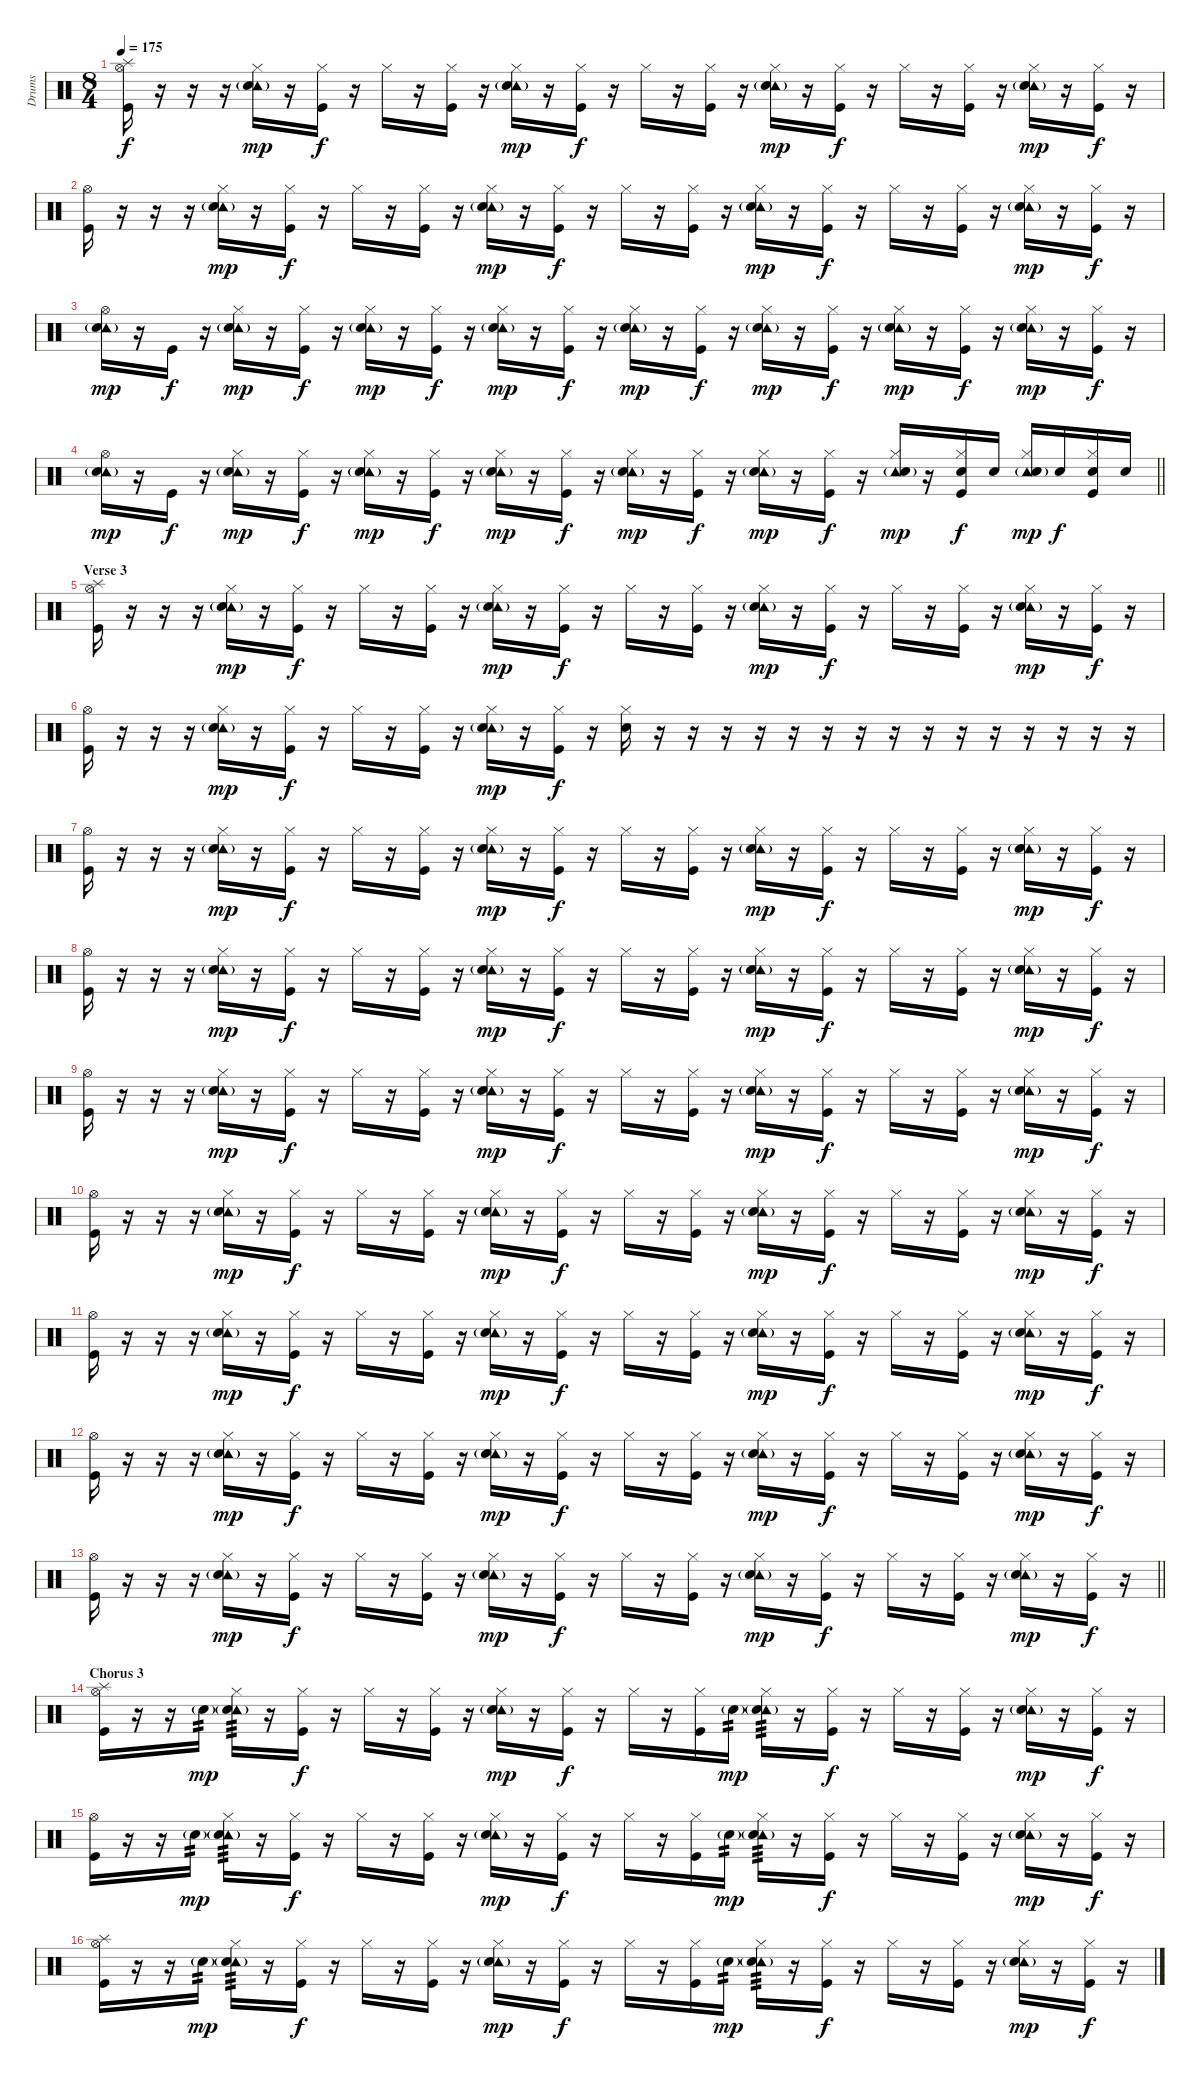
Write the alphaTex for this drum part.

\track ("Drums" "Drums") {instrument percussion}
\staff {score}
\articulation defaults
\ts (8 4)
\tempo 175
\clef neutral
\ks c
("Splash (hit)" "Hi-Hat (open)" "Kick (hit)").16{dy f} r.16 r.16 r.16 ("Tambourine (hit)"{g} "Hi-Hat (closed)" "Electric Snare (hit)").16{dy mp} r.16 ("Hi-Hat (closed)" "Kick (hit)").16{dy f} r.16 "Hi-Hat (closed)".16 r.16 ("Hi-Hat (closed)" "Kick (hit)").16 r.16 ("Tambourine (hit)"{g} "Hi-Hat (closed)" "Electric Snare (hit)").16{dy mp} r.16 ("Hi-Hat (closed)" "Kick (hit)").16{dy f} r.16 "Hi-Hat (closed)".16 r.16 ("Hi-Hat (closed)" "Kick (hit)").16 r.16 ("Tambourine (hit)"{g} "Hi-Hat (closed)" "Electric Snare (hit)").16{dy mp} r.16 ("Hi-Hat (closed)" "Kick (hit)").16{dy f} r.16 "Hi-Hat (closed)".16 r.16 ("Hi-Hat (closed)" "Kick (hit)").16 r.16 ("Tambourine (hit)"{g} "Hi-Hat (closed)" "Electric Snare (hit)").16{dy mp} r.16 ("Hi-Hat (closed)" "Kick (hit)").16{dy f} r.16 |
("Hi-Hat (open)" "Kick (hit)").16 r.16 r.16 r.16 ("Tambourine (hit)"{g} "Hi-Hat (closed)" "Electric Snare (hit)").16{dy mp} r.16 ("Hi-Hat (closed)" "Kick (hit)").16{dy f} r.16 "Hi-Hat (closed)".16 r.16 ("Hi-Hat (closed)" "Kick (hit)").16 r.16 ("Tambourine (hit)"{g} "Hi-Hat (closed)" "Electric Snare (hit)").16{dy mp} r.16 ("Hi-Hat (closed)" "Kick (hit)").16{dy f} r.16 "Hi-Hat (closed)".16 r.16 ("Hi-Hat (closed)" "Kick (hit)").16 r.16 ("Tambourine (hit)"{g} "Hi-Hat (closed)" "Electric Snare (hit)").16{dy mp} r.16 ("Hi-Hat (closed)" "Kick (hit)").16{dy f} r.16 "Hi-Hat (closed)".16 r.16 ("Hi-Hat (closed)" "Kick (hit)").16 r.16 ("Tambourine (hit)"{g} "Hi-Hat (closed)" "Electric Snare (hit)").16{dy mp} r.16 ("Hi-Hat (closed)" "Kick (hit)").16{dy f} r.16 |
("Tambourine (hit)"{g} "Hi-Hat (open)" "Electric Snare (hit)").16{dy mp} r.16 "Kick (hit)".16{dy f} r.16 ("Tambourine (hit)"{g} "Hi-Hat (closed)" "Electric Snare (hit)").16{dy mp} r.16 ("Hi-Hat (closed)" "Kick (hit)").16{dy f} r.16 ("Tambourine (hit)"{g} "Hi-Hat (closed)" "Electric Snare (hit)").16{dy mp} r.16 ("Hi-Hat (closed)" "Kick (hit)").16{dy f} r.16 ("Tambourine (hit)"{g} "Hi-Hat (closed)" "Electric Snare (hit)").16{dy mp} r.16 ("Hi-Hat (closed)" "Kick (hit)").16{dy f} r.16 ("Tambourine (hit)"{g} "Hi-Hat (closed)" "Electric Snare (hit)").16{dy mp} r.16 ("Hi-Hat (closed)" "Kick (hit)").16{dy f} r.16 ("Tambourine (hit)"{g} "Hi-Hat (closed)" "Electric Snare (hit)").16{dy mp} r.16 ("Hi-Hat (closed)" "Kick (hit)").16{dy f} r.16 ("Tambourine (hit)"{g} "Hi-Hat (closed)" "Electric Snare (hit)").16{dy mp} r.16 ("Hi-Hat (closed)" "Kick (hit)").16{dy f} r.16 ("Tambourine (hit)"{g} "Hi-Hat (closed)" "Electric Snare (hit)").16{dy mp} r.16 ("Hi-Hat (closed)" "Kick (hit)").16{dy f} r.16 |
\barLineRight lightlight
("Tambourine (hit)"{g} "Hi-Hat (open)" "Electric Snare (hit)").16{dy mp} r.16 "Kick (hit)".16{dy f} r.16 ("Tambourine (hit)"{g} "Hi-Hat (closed)" "Electric Snare (hit)").16{dy mp} r.16 ("Hi-Hat (closed)" "Kick (hit)").16{dy f} r.16 ("Tambourine (hit)"{g} "Hi-Hat (closed)" "Electric Snare (hit)").16{dy mp} r.16 ("Hi-Hat (closed)" "Kick (hit)").16{dy f} r.16 ("Tambourine (hit)"{g} "Hi-Hat (closed)" "Electric Snare (hit)").16{dy mp} r.16 ("Hi-Hat (closed)" "Kick (hit)").16{dy f} r.16 ("Tambourine (hit)"{g} "Hi-Hat (closed)" "Electric Snare (hit)").16{dy mp} r.16 ("Hi-Hat (closed)" "Kick (hit)").16{dy f} r.16 ("Tambourine (hit)"{g} "Hi-Hat (closed)" "Electric Snare (hit)").16{dy mp} r.16 ("Hi-Hat (closed)" "Kick (hit)").16{dy f} r.16 ("Tambourine (hit)"{g} "Hi-Hat (closed)" "Electric Snare (hit)").16{dy mp} r.16 ("Hi-Hat (closed)" "Electric Snare (hit)" "Kick (hit)").16{dy f} "Electric Snare (hit)".16 ("Tambourine (hit)"{g} "Hi-Hat (closed)" "Electric Snare (hit)").16{dy mp} "Electric Snare (hit)".16{dy f} ("Hi-Hat (closed)" "Electric Snare (hit)" "Kick (hit)").16 "Electric Snare (hit)".16 |
\section ("" "Verse 3")
("Splash (hit)" "Hi-Hat (open)" "Kick (hit)").16 r.16 r.16 r.16 ("Tambourine (hit)"{g} "Hi-Hat (closed)" "Electric Snare (hit)").16{dy mp} r.16 ("Hi-Hat (closed)" "Kick (hit)").16{dy f} r.16 "Hi-Hat (closed)".16 r.16 ("Hi-Hat (closed)" "Kick (hit)").16 r.16 ("Tambourine (hit)"{g} "Hi-Hat (closed)" "Electric Snare (hit)").16{dy mp} r.16 ("Hi-Hat (closed)" "Kick (hit)").16{dy f} r.16 "Hi-Hat (closed)".16 r.16 ("Hi-Hat (closed)" "Kick (hit)").16 r.16 ("Tambourine (hit)"{g} "Hi-Hat (closed)" "Electric Snare (hit)").16{dy mp} r.16 ("Hi-Hat (closed)" "Kick (hit)").16{dy f} r.16 "Hi-Hat (closed)".16 r.16 ("Hi-Hat (closed)" "Kick (hit)").16 r.16 ("Tambourine (hit)"{g} "Hi-Hat (closed)" "Electric Snare (hit)").16{dy mp} r.16 ("Hi-Hat (closed)" "Kick (hit)").16{dy f} r.16 |
("Hi-Hat (open)" "Kick (hit)").16 r.16 r.16 r.16 ("Tambourine (hit)"{g} "Hi-Hat (closed)" "Electric Snare (hit)").16{dy mp} r.16 ("Hi-Hat (closed)" "Kick (hit)").16{dy f} r.16 "Hi-Hat (closed)".16 r.16 ("Hi-Hat (closed)" "Kick (hit)").16 r.16 ("Tambourine (hit)"{g} "Hi-Hat (closed)" "Electric Snare (hit)").16{dy mp} r.16 ("Hi-Hat (closed)" "Kick (hit)").16{dy f} r.16 ("Hi-Hat (closed)" "Electric Snare (hit)").16 r.16 r.16 r.16 r.16 r.16 r.16 r.16 r.16 r.16 r.16 r.16 r.16 r.16 r.16 r.16 |
("Hi-Hat (open)" "Kick (hit)").16 r.16 r.16 r.16 ("Tambourine (hit)"{g} "Hi-Hat (closed)" "Electric Snare (hit)").16{dy mp} r.16 ("Hi-Hat (closed)" "Kick (hit)").16{dy f} r.16 "Hi-Hat (closed)".16 r.16 ("Hi-Hat (closed)" "Kick (hit)").16 r.16 ("Tambourine (hit)"{g} "Hi-Hat (closed)" "Electric Snare (hit)").16{dy mp} r.16 ("Hi-Hat (closed)" "Kick (hit)").16{dy f} r.16 "Hi-Hat (closed)".16 r.16 ("Hi-Hat (closed)" "Kick (hit)").16 r.16 ("Tambourine (hit)"{g} "Hi-Hat (closed)" "Electric Snare (hit)").16{dy mp} r.16 ("Hi-Hat (closed)" "Kick (hit)").16{dy f} r.16 "Hi-Hat (closed)".16 r.16 ("Hi-Hat (closed)" "Kick (hit)").16 r.16 ("Tambourine (hit)"{g} "Hi-Hat (closed)" "Electric Snare (hit)").16{dy mp} r.16 ("Hi-Hat (closed)" "Kick (hit)").16{dy f} r.16 |
("Hi-Hat (open)" "Kick (hit)").16 r.16 r.16 r.16 ("Tambourine (hit)"{g} "Hi-Hat (closed)" "Electric Snare (hit)").16{dy mp} r.16 ("Hi-Hat (closed)" "Kick (hit)").16{dy f} r.16 "Hi-Hat (closed)".16 r.16 ("Hi-Hat (closed)" "Kick (hit)").16 r.16 ("Tambourine (hit)"{g} "Hi-Hat (closed)" "Electric Snare (hit)").16{dy mp} r.16 ("Hi-Hat (closed)" "Kick (hit)").16{dy f} r.16 "Hi-Hat (closed)".16 r.16 ("Hi-Hat (closed)" "Kick (hit)").16 r.16 ("Tambourine (hit)"{g} "Hi-Hat (closed)" "Electric Snare (hit)").16{dy mp} r.16 ("Hi-Hat (closed)" "Kick (hit)").16{dy f} r.16 "Hi-Hat (closed)".16 r.16 ("Hi-Hat (closed)" "Kick (hit)").16 r.16 ("Tambourine (hit)"{g} "Hi-Hat (closed)" "Electric Snare (hit)").16{dy mp} r.16 ("Hi-Hat (closed)" "Kick (hit)").16{dy f} r.16 |
("Hi-Hat (open)" "Kick (hit)").16 r.16 r.16 r.16 ("Tambourine (hit)"{g} "Hi-Hat (closed)" "Electric Snare (hit)").16{dy mp} r.16 ("Hi-Hat (closed)" "Kick (hit)").16{dy f} r.16 "Hi-Hat (closed)".16 r.16 ("Hi-Hat (closed)" "Kick (hit)").16 r.16 ("Tambourine (hit)"{g} "Hi-Hat (closed)" "Electric Snare (hit)").16{dy mp} r.16 ("Hi-Hat (closed)" "Kick (hit)").16{dy f} r.16 "Hi-Hat (closed)".16 r.16 ("Hi-Hat (closed)" "Kick (hit)").16 r.16 ("Tambourine (hit)"{g} "Hi-Hat (closed)" "Electric Snare (hit)").16{dy mp} r.16 ("Hi-Hat (closed)" "Kick (hit)").16{dy f} r.16 "Hi-Hat (closed)".16 r.16 ("Hi-Hat (closed)" "Kick (hit)").16 r.16 ("Tambourine (hit)"{g} "Hi-Hat (closed)" "Electric Snare (hit)").16{dy mp} r.16 ("Hi-Hat (closed)" "Kick (hit)").16{dy f} r.16 |
("Hi-Hat (open)" "Kick (hit)").16 r.16 r.16 r.16 ("Tambourine (hit)"{g} "Hi-Hat (closed)" "Electric Snare (hit)").16{dy mp} r.16 ("Hi-Hat (closed)" "Kick (hit)").16{dy f} r.16 "Hi-Hat (closed)".16 r.16 ("Hi-Hat (closed)" "Kick (hit)").16 r.16 ("Tambourine (hit)"{g} "Hi-Hat (closed)" "Electric Snare (hit)").16{dy mp} r.16 ("Hi-Hat (closed)" "Kick (hit)").16{dy f} r.16 "Hi-Hat (closed)".16 r.16 ("Hi-Hat (closed)" "Kick (hit)").16 r.16 ("Tambourine (hit)"{g} "Hi-Hat (closed)" "Electric Snare (hit)").16{dy mp} r.16 ("Hi-Hat (closed)" "Kick (hit)").16{dy f} r.16 "Hi-Hat (closed)".16 r.16 ("Hi-Hat (closed)" "Kick (hit)").16 r.16 ("Tambourine (hit)"{g} "Hi-Hat (closed)" "Electric Snare (hit)").16{dy mp} r.16 ("Hi-Hat (closed)" "Kick (hit)").16{dy f} r.16 |
("Hi-Hat (open)" "Kick (hit)").16 r.16 r.16 r.16 ("Tambourine (hit)"{g} "Hi-Hat (closed)" "Electric Snare (hit)").16{dy mp} r.16 ("Hi-Hat (closed)" "Kick (hit)").16{dy f} r.16 "Hi-Hat (closed)".16 r.16 ("Hi-Hat (closed)" "Kick (hit)").16 r.16 ("Tambourine (hit)"{g} "Hi-Hat (closed)" "Electric Snare (hit)").16{dy mp} r.16 ("Hi-Hat (closed)" "Kick (hit)").16{dy f} r.16 "Hi-Hat (closed)".16 r.16 ("Hi-Hat (closed)" "Kick (hit)").16 r.16 ("Tambourine (hit)"{g} "Hi-Hat (closed)" "Electric Snare (hit)").16{dy mp} r.16 ("Hi-Hat (closed)" "Kick (hit)").16{dy f} r.16 "Hi-Hat (closed)".16 r.16 ("Hi-Hat (closed)" "Kick (hit)").16 r.16 ("Tambourine (hit)"{g} "Hi-Hat (closed)" "Electric Snare (hit)").16{dy mp} r.16 ("Hi-Hat (closed)" "Kick (hit)").16{dy f} r.16 |
("Hi-Hat (open)" "Kick (hit)").16 r.16 r.16 r.16 ("Tambourine (hit)"{g} "Hi-Hat (closed)" "Electric Snare (hit)").16{dy mp} r.16 ("Hi-Hat (closed)" "Kick (hit)").16{dy f} r.16 "Hi-Hat (closed)".16 r.16 ("Hi-Hat (closed)" "Kick (hit)").16 r.16 ("Tambourine (hit)"{g} "Hi-Hat (closed)" "Electric Snare (hit)").16{dy mp} r.16 ("Hi-Hat (closed)" "Kick (hit)").16{dy f} r.16 "Hi-Hat (closed)".16 r.16 ("Hi-Hat (closed)" "Kick (hit)").16 r.16 ("Tambourine (hit)"{g} "Hi-Hat (closed)" "Electric Snare (hit)").16{dy mp} r.16 ("Hi-Hat (closed)" "Kick (hit)").16{dy f} r.16 "Hi-Hat (closed)".16 r.16 ("Hi-Hat (closed)" "Kick (hit)").16 r.16 ("Tambourine (hit)"{g} "Hi-Hat (closed)" "Electric Snare (hit)").16{dy mp} r.16 ("Hi-Hat (closed)" "Kick (hit)").16{dy f} r.16 |
\barLineRight lightlight
("Hi-Hat (open)" "Kick (hit)").16 r.16 r.16 r.16 ("Tambourine (hit)"{g} "Hi-Hat (closed)" "Electric Snare (hit)").16{dy mp} r.16 ("Hi-Hat (closed)" "Kick (hit)").16{dy f} r.16 "Hi-Hat (closed)".16 r.16 ("Hi-Hat (closed)" "Kick (hit)").16 r.16 ("Tambourine (hit)"{g} "Hi-Hat (closed)" "Electric Snare (hit)").16{dy mp} r.16 ("Hi-Hat (closed)" "Kick (hit)").16{dy f} r.16 "Hi-Hat (closed)".16 r.16 ("Hi-Hat (closed)" "Kick (hit)").16 r.16 ("Tambourine (hit)"{g} "Hi-Hat (closed)" "Electric Snare (hit)").16{dy mp} r.16 ("Hi-Hat (closed)" "Kick (hit)").16{dy f} r.16 "Hi-Hat (closed)".16 r.16 ("Hi-Hat (closed)" "Kick (hit)").16 r.16 ("Tambourine (hit)"{g} "Hi-Hat (closed)" "Electric Snare (hit)").16{dy mp} r.16 ("Hi-Hat (closed)" "Kick (hit)").16{dy f} r.16 |
\section ("" "Chorus 3")
("Splash (hit)" "Hi-Hat (open)" "Kick (hit)").16 r.16 r.16 "Electric Snare (hit)"{g}.16{tp 2 dy mp} ("Tambourine (hit)"{g} "Hi-Hat (closed)" "Electric Snare (hit)").16{tp 3} r.16 ("Hi-Hat (closed)" "Kick (hit)").16{dy f} r.16 "Hi-Hat (closed)".16 r.16 ("Hi-Hat (closed)" "Kick (hit)").16 r.16 ("Tambourine (hit)"{g} "Hi-Hat (closed)" "Electric Snare (hit)").16{dy mp} r.16 ("Hi-Hat (closed)" "Kick (hit)").16{dy f} r.16 "Hi-Hat (closed)".16 r.16 ("Hi-Hat (closed)" "Kick (hit)").16 "Electric Snare (hit)"{g}.16{tp 2 dy mp} ("Tambourine (hit)"{g} "Hi-Hat (closed)" "Electric Snare (hit)").16{tp 3} r.16 ("Hi-Hat (closed)" "Kick (hit)").16{dy f} r.16 "Hi-Hat (closed)".16 r.16 ("Hi-Hat (closed)" "Kick (hit)").16 r.16 ("Tambourine (hit)"{g} "Hi-Hat (closed)" "Electric Snare (hit)").16{dy mp} r.16 ("Hi-Hat (closed)" "Kick (hit)").16{dy f} r.16 |
("Hi-Hat (open)" "Kick (hit)").16 r.16 r.16 "Electric Snare (hit)"{g}.16{tp 2 dy mp} ("Tambourine (hit)"{g} "Hi-Hat (closed)" "Electric Snare (hit)").16{tp 3} r.16 ("Hi-Hat (closed)" "Kick (hit)").16{dy f} r.16 "Hi-Hat (closed)".16 r.16 ("Hi-Hat (closed)" "Kick (hit)").16 r.16 ("Tambourine (hit)"{g} "Hi-Hat (closed)" "Electric Snare (hit)").16{dy mp} r.16 ("Hi-Hat (closed)" "Kick (hit)").16{dy f} r.16 "Hi-Hat (closed)".16 r.16 ("Hi-Hat (closed)" "Kick (hit)").16 "Electric Snare (hit)"{g}.16{tp 2 dy mp} ("Tambourine (hit)"{g} "Hi-Hat (closed)" "Electric Snare (hit)").16{tp 3} r.16 ("Hi-Hat (closed)" "Kick (hit)").16{dy f} r.16 "Hi-Hat (closed)".16 r.16 ("Hi-Hat (closed)" "Kick (hit)").16 r.16 ("Tambourine (hit)"{g} "Hi-Hat (closed)" "Electric Snare (hit)").16{dy mp} r.16 ("Hi-Hat (closed)" "Kick (hit)").16{dy f} r.16 |
("Splash (hit)" "Hi-Hat (open)" "Kick (hit)").16 r.16 r.16 "Electric Snare (hit)"{g}.16{tp 2 dy mp} ("Tambourine (hit)"{g} "Hi-Hat (closed)" "Electric Snare (hit)").16{tp 3} r.16 ("Hi-Hat (closed)" "Kick (hit)").16{dy f} r.16 "Hi-Hat (closed)".16 r.16 ("Hi-Hat (closed)" "Kick (hit)").16 r.16 ("Tambourine (hit)"{g} "Hi-Hat (closed)" "Electric Snare (hit)").16{dy mp} r.16 ("Hi-Hat (closed)" "Kick (hit)").16{dy f} r.16 "Hi-Hat (closed)".16 r.16 ("Hi-Hat (closed)" "Kick (hit)").16 "Electric Snare (hit)"{g}.16{tp 2 dy mp} ("Tambourine (hit)"{g} "Hi-Hat (closed)" "Electric Snare (hit)").16{tp 3} r.16 ("Hi-Hat (closed)" "Kick (hit)").16{dy f} r.16 "Hi-Hat (closed)".16 r.16 ("Hi-Hat (closed)" "Kick (hit)").16 r.16 ("Tambourine (hit)"{g} "Hi-Hat (closed)" "Electric Snare (hit)").16{dy mp} r.16 ("Hi-Hat (closed)" "Kick (hit)").16{dy f} r.16
